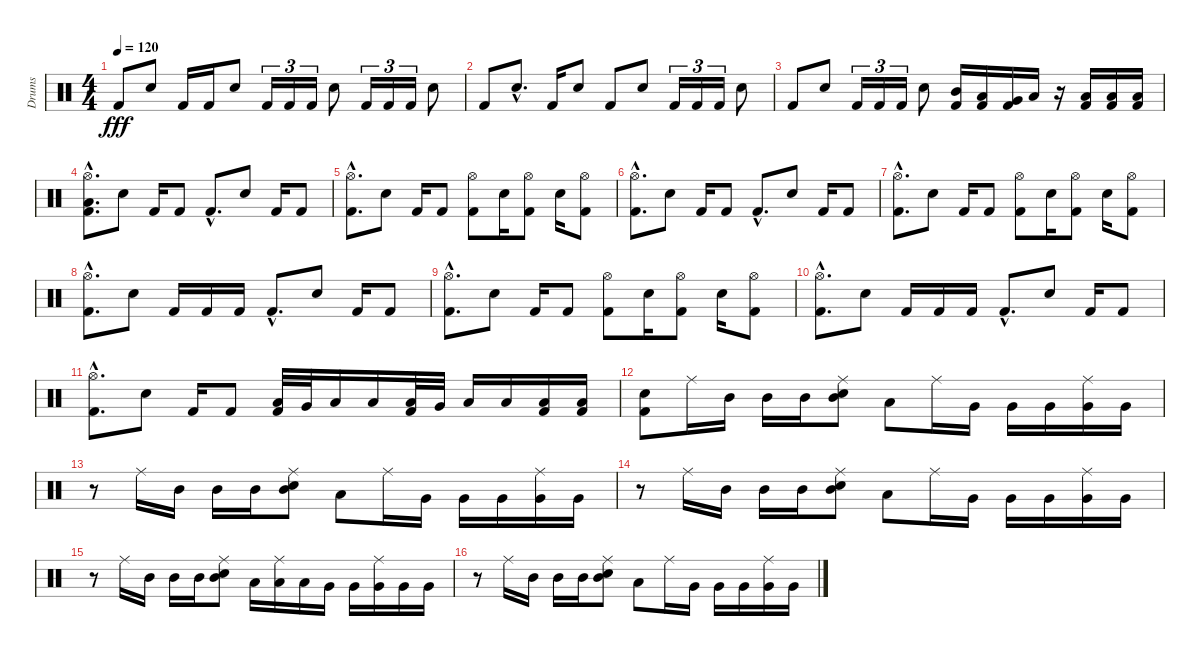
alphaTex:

\track ("Drums" "Drums") {instrument percussion}
\staff {score}
\articulation defaults
\ts (4 4)
\tempo 120
\clef neutral
\ks c "Kick (hit) 2".8{dy fff} "Snare (hit) 2".8 "Kick (hit) 2".16 "Kick (hit) 2".16 "Snare (hit) 2".8 "Kick (hit) 2".16{tu (3 2)} "Kick (hit) 2".16{tu (3 2)} "Kick (hit) 2".16{tu (3 2)} "Snare (hit) 2".8 "Kick (hit) 2".16{tu (3 2)} "Kick (hit) 2".16{tu (3 2)} "Kick (hit) 2".16{tu (3 2)} "Snare (hit) 2".8
|
"Kick (hit) 2".8 "Snare (hit) 2"{hac}.8{d} "Kick (hit) 2".16 "Snare (hit) 2".8 "Kick (hit) 2".8 "Snare (hit) 2".8 "Kick (hit) 2".16{tu (3 2)} "Kick (hit) 2".16{tu (3 2)} "Kick (hit) 2".16{tu (3 2)} "Snare (hit) 2".8 |
"Kick (hit) 2".8 "Snare (hit) 2".8 "Kick (hit) 2".16{tu (3 2)} "Kick (hit) 2".16{tu (3 2)} "Kick (hit) 2".16{tu (3 2)} "Snare (hit) 2".8 ("Mid Tom (hit)" "Kick (hit) 2").16 ("Low Tom (hit)" "Kick (hit) 2").16 ("Very Low Tom (hit)" "Kick (hit) 2").16 "Low Floor Tom (hit)".16 r.16 ("Low Floor Tom (hit)" "Kick (hit) 2").16 ("Low Floor Tom (hit)" "Kick (hit) 2").16 ("Low Floor Tom (hit)" "Kick (hit) 2").16 |
("Hi-Hat (open)"{hac} "Low Floor Tom (hit)"{hac} "Kick (hit) 2"{hac}).8{d} "Snare (hit) 2".8 "Kick (hit) 2".16 "Kick (hit) 2".8 "Kick (hit) 2"{hac}.8{d} "Snare (hit) 2".8 "Kick (hit) 2".16 "Kick (hit) 2".8 |
("Hi-Hat (open)"{hac} "Kick (hit) 2"{hac}).8{d} "Snare (hit) 2".8 "Kick (hit) 2".16 "Kick (hit) 2".8 ("Hi-Hat (open)" "Kick (hit) 2").8 "Snare (hit) 2".16 ("Hi-Hat (open)" "Kick (hit) 2").8 "Snare (hit) 2".16 ("Hi-Hat (open)" "Kick (hit) 2").8 |
("Hi-Hat (open)"{hac} "Kick (hit) 2"{hac}).8{d} "Snare (hit) 2".8 "Kick (hit) 2".16 "Kick (hit) 2".8 "Kick (hit) 2"{hac}.8{d} "Snare (hit) 2".8 "Kick (hit) 2".16 "Kick (hit) 2".8 |
("Hi-Hat (open)"{hac} "Kick (hit) 2"{hac}).8{d} "Snare (hit) 2".8 "Kick (hit) 2".16 "Kick (hit) 2".8 ("Hi-Hat (open)" "Kick (hit) 2").8 "Snare (hit) 2".16 ("Hi-Hat (open)" "Kick (hit) 2").8 "Snare (hit) 2".16 ("Hi-Hat (open)" "Kick (hit) 2").8 |
("Hi-Hat (open)"{hac} "Kick (hit) 2"{hac}).8{d} "Snare (hit) 2".8 "Kick (hit) 2".16 "Kick (hit) 2".16 "Kick (hit) 2".16 "Kick (hit) 2"{hac}.8{d} "Snare (hit) 2".8 "Kick (hit) 2".16 "Kick (hit) 2".8 |
("Hi-Hat (open)"{hac} "Kick (hit) 2"{hac}).8{d} "Snare (hit) 2".8 "Kick (hit) 2".16 "Kick (hit) 2".8 ("Hi-Hat (open)" "Kick (hit) 2").8 "Snare (hit) 2".16 ("Hi-Hat (open)" "Kick (hit) 2").8 "Snare (hit) 2".16 ("Hi-Hat (open)" "Kick (hit) 2").8 |
("Hi-Hat (open)"{hac} "Kick (hit) 2"{hac}).8{d} "Snare (hit) 2".8 "Kick (hit) 2".16 "Kick (hit) 2".16 "Kick (hit) 2".16 "Kick (hit) 2"{hac}.8{d} "Snare (hit) 2".8 "Kick (hit) 2".16 "Kick (hit) 2".8 |
("Hi-Hat (open)"{hac} "Kick (hit) 2"{hac}).8{d} "Snare (hit) 2".8 "Kick (hit) 2".16 "Kick (hit) 2".8 ("Low Tom (hit)" "Kick (hit) 2").32 "Very Low Tom (hit)".32 "Low Floor Tom (hit)".16 "Low Floor Tom (hit)".16 ("Low Tom (hit)" "Kick (hit) 2").32 "Very Low Tom (hit)".32 "Low Floor Tom (hit)".16 "Low Floor Tom (hit)".16 ("Low Floor Tom (hit)" "Kick (hit) 2").16 ("Low Floor Tom (hit)" "Kick (hit) 2").16 |
("Snare (hit) 2" "Kick (hit) 2").8 "Ride (middle)".16 "Mid Tom (hit)".16 "Mid Tom (hit)".16 "Mid Tom (hit)".16 ("Ride (middle)" "Snare (hit) 2" "Mid Tom (hit)").8 "Low Tom (hit)".8 "Ride (middle)".16 "Very Low Tom (hit)".16 "Very Low Tom (hit)".16 "Very Low Tom (hit)".16 ("Ride (middle)" "Very Low Tom (hit)").16 "Very Low Tom (hit)".16 |
r.8 "Ride (middle)".16 "Mid Tom (hit)".16 "Mid Tom (hit)".16 "Mid Tom (hit)".16 ("Ride (middle)" "Snare (hit) 2" "Mid Tom (hit)").8 "Low Tom (hit)".8 "Ride (middle)".16 "Very Low Tom (hit)".16 "Very Low Tom (hit)".16 "Very Low Tom (hit)".16 ("Ride (middle)" "Very Low Tom (hit)").16 "Very Low Tom (hit)".16 |
r.8 "Ride (middle)".16 "Mid Tom (hit)".16 "Mid Tom (hit)".16 "Mid Tom (hit)".16 ("Ride (middle)" "Snare (hit) 2" "Mid Tom (hit)").8 "Low Tom (hit)".8 "Ride (middle)".16 "Very Low Tom (hit)".16 "Very Low Tom (hit)".16 "Very Low Tom (hit)".16 ("Ride (middle)" "Very Low Tom (hit)").16 "Very Low Tom (hit)".16 |
r.8 "Ride (middle)".16 "Mid Tom (hit)".16 "Mid Tom (hit)".16 "Mid Tom (hit)".16 ("Ride (middle)" "Snare (hit) 2" "Mid Tom (hit)").8 "Low Tom (hit)".16 ("Ride (middle)" "Low Tom (hit)").16 "Low Tom (hit)".16 "Very Low Tom (hit)".16 "Very Low Tom (hit)".16 ("Ride (middle)" "Very Low Tom (hit)").16 "Very Low Tom (hit)".16 "Very Low Tom (hit)".16 |
r.8 "Ride (middle)".16 "Mid Tom (hit)".16 "Mid Tom (hit)".16 "Mid Tom (hit)".16 ("Ride (middle)" "Snare (hit) 2" "Mid Tom (hit)").8 "Low Tom (hit)".8 "Ride (middle)".16 "Very Low Tom (hit)".16 "Very Low Tom (hit)".16 "Very Low Tom (hit)".16 ("Ride (middle)" "Very Low Tom (hit)").16 "Very Low Tom (hit)".16
